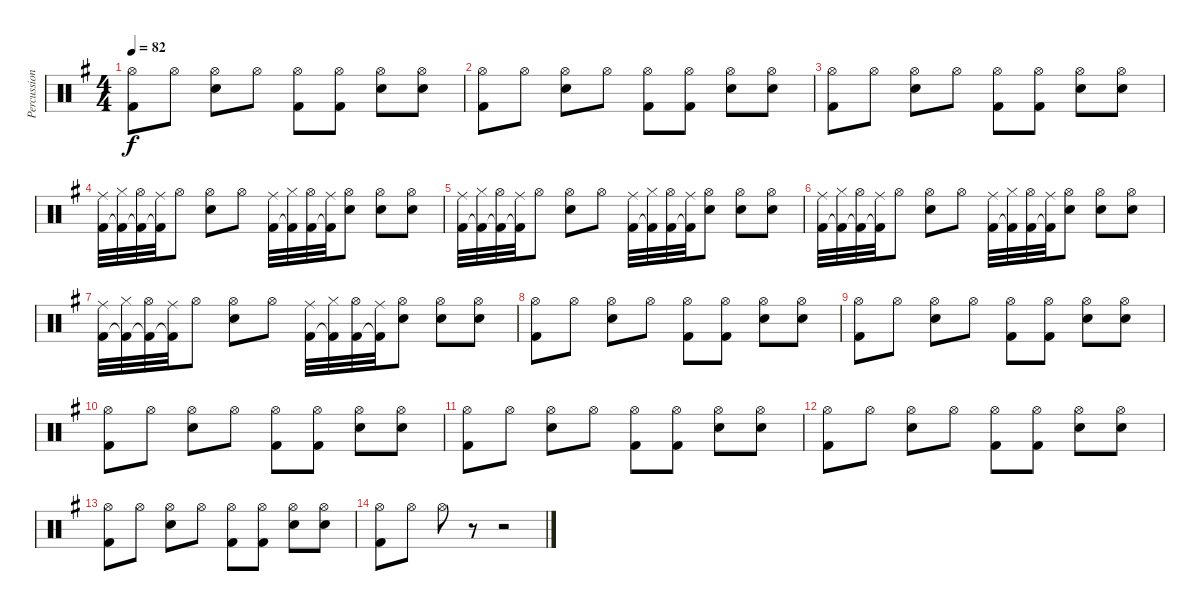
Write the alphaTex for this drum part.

\track ("Percussions" "Percussion") {instrument percussion}
\staff {score}
\articulation defaults
\ts (4 4)
\tempo 82
\clef neutral
\ks g
("Hi-Hat (open)" "Kick (hit) 2").8{dy f} "Hi-Hat (open)".8 ("Hi-Hat (open)" "Snare (hit) 2").8 "Hi-Hat (open)".8 ("Hi-Hat (open)" "Kick (hit) 2").8 ("Hi-Hat (open)" "Kick (hit) 2").8 ("Hi-Hat (open)" "Snare (hit) 2").8 ("Hi-Hat (open)" "Snare (hit) 2").8 |
("Hi-Hat (open)" "Kick (hit) 2").8 "Hi-Hat (open)".8 ("Hi-Hat (open)" "Snare (hit) 2").8 "Hi-Hat (open)".8 ("Hi-Hat (open)" "Kick (hit) 2").8 ("Hi-Hat (open)" "Kick (hit) 2").8 ("Hi-Hat (open)" "Snare (hit) 2").8 ("Hi-Hat (open)" "Snare (hit) 2").8 |
("Hi-Hat (open)" "Kick (hit) 2").8 "Hi-Hat (open)".8 ("Hi-Hat (open)" "Snare (hit) 2").8 "Hi-Hat (open)".8 ("Hi-Hat (open)" "Kick (hit) 2").8 ("Hi-Hat (open)" "Kick (hit) 2").8 ("Hi-Hat (open)" "Snare (hit) 2").8 ("Hi-Hat (open)" "Snare (hit) 2").8 |
("Ride (middle)" "Kick (hit) 2").32 ("Hi-Hat (closed)" "Kick (hit) 2"{t}).32 ("Hi-Hat (open)" "Kick (hit) 2"{t}).32 ("Ride (middle)" "Kick (hit) 2"{t}).32 "Hi-Hat (open)".8 ("Hi-Hat (open)" "Snare (hit) 2").8 "Hi-Hat (open)".8 ("Ride (middle)" "Kick (hit) 2").32 ("Hi-Hat (closed)" "Kick (hit) 2"{t}).32 ("Hi-Hat (open)" "Kick (hit) 2").32 ("Ride (middle)" "Kick (hit) 2"{t}).32 ("Hi-Hat (open)" "Snare (hit) 2").8 ("Hi-Hat (open)" "Snare (hit) 2").8 ("Hi-Hat (open)" "Snare (hit) 2").8 |
("Ride (middle)" "Kick (hit) 2").32 ("Hi-Hat (closed)" "Kick (hit) 2"{t}).32 ("Hi-Hat (open)" "Kick (hit) 2"{t}).32 ("Ride (middle)" "Kick (hit) 2"{t}).32 "Hi-Hat (open)".8 ("Hi-Hat (open)" "Snare (hit) 2").8 "Hi-Hat (open)".8 ("Ride (middle)" "Kick (hit) 2").32 ("Hi-Hat (closed)" "Kick (hit) 2"{t}).32 ("Hi-Hat (open)" "Kick (hit) 2").32 ("Ride (middle)" "Kick (hit) 2"{t}).32 ("Hi-Hat (open)" "Snare (hit) 2").8 ("Hi-Hat (open)" "Snare (hit) 2").8 ("Hi-Hat (open)" "Snare (hit) 2").8 |
("Ride (middle)" "Kick (hit) 2").32 ("Hi-Hat (closed)" "Kick (hit) 2"{t}).32 ("Hi-Hat (open)" "Kick (hit) 2"{t}).32 ("Ride (middle)" "Kick (hit) 2"{t}).32 "Hi-Hat (open)".8 ("Hi-Hat (open)" "Snare (hit) 2").8 "Hi-Hat (open)".8 ("Ride (middle)" "Kick (hit) 2").32 ("Hi-Hat (closed)" "Kick (hit) 2"{t}).32 ("Hi-Hat (open)" "Kick (hit) 2").32 ("Ride (middle)" "Kick (hit) 2"{t}).32 ("Hi-Hat (open)" "Snare (hit) 2").8 ("Hi-Hat (open)" "Snare (hit) 2").8 ("Hi-Hat (open)" "Snare (hit) 2").8 |
("Ride (middle)" "Kick (hit) 2").32 ("Hi-Hat (closed)" "Kick (hit) 2"{t}).32 ("Hi-Hat (open)" "Kick (hit) 2"{t}).32 ("Ride (middle)" "Kick (hit) 2"{t}).32 "Hi-Hat (open)".8 ("Hi-Hat (open)" "Snare (hit) 2").8 "Hi-Hat (open)".8 ("Ride (middle)" "Kick (hit) 2").32 ("Hi-Hat (closed)" "Kick (hit) 2"{t}).32 ("Hi-Hat (open)" "Kick (hit) 2").32 ("Ride (middle)" "Kick (hit) 2"{t}).32 ("Hi-Hat (open)" "Snare (hit) 2").8 ("Hi-Hat (open)" "Snare (hit) 2").8 ("Hi-Hat (open)" "Snare (hit) 2").8 |
("Hi-Hat (open)" "Kick (hit) 2").8 "Hi-Hat (open)".8 ("Hi-Hat (open)" "Snare (hit) 2").8 "Hi-Hat (open)".8 ("Hi-Hat (open)" "Kick (hit) 2").8 ("Hi-Hat (open)" "Kick (hit) 2").8 ("Hi-Hat (open)" "Snare (hit) 2").8 ("Hi-Hat (open)" "Snare (hit) 2").8 |
("Hi-Hat (open)" "Kick (hit) 2").8 "Hi-Hat (open)".8 ("Hi-Hat (open)" "Snare (hit) 2").8 "Hi-Hat (open)".8 ("Hi-Hat (open)" "Kick (hit) 2").8 ("Hi-Hat (open)" "Kick (hit) 2").8 ("Hi-Hat (open)" "Snare (hit) 2").8 ("Hi-Hat (open)" "Snare (hit) 2").8 |
("Hi-Hat (open)" "Kick (hit) 2").8 "Hi-Hat (open)".8 ("Hi-Hat (open)" "Snare (hit) 2").8 "Hi-Hat (open)".8 ("Hi-Hat (open)" "Kick (hit) 2").8 ("Hi-Hat (open)" "Kick (hit) 2").8 ("Hi-Hat (open)" "Snare (hit) 2").8 ("Hi-Hat (open)" "Snare (hit) 2").8 |
("Hi-Hat (open)" "Kick (hit) 2").8 "Hi-Hat (open)".8 ("Hi-Hat (open)" "Snare (hit) 2").8 "Hi-Hat (open)".8 ("Hi-Hat (open)" "Kick (hit) 2").8 ("Hi-Hat (open)" "Kick (hit) 2").8 ("Hi-Hat (open)" "Snare (hit) 2").8 ("Hi-Hat (open)" "Snare (hit) 2").8 |
("Hi-Hat (open)" "Kick (hit) 2").8 "Hi-Hat (open)".8 ("Hi-Hat (open)" "Snare (hit) 2").8 "Hi-Hat (open)".8 ("Hi-Hat (open)" "Kick (hit) 2").8 ("Hi-Hat (open)" "Kick (hit) 2").8 ("Hi-Hat (open)" "Snare (hit) 2").8 ("Hi-Hat (open)" "Snare (hit) 2").8 |
("Hi-Hat (open)" "Kick (hit) 2").8 "Hi-Hat (open)".8 ("Hi-Hat (open)" "Snare (hit) 2").8 "Hi-Hat (open)".8 ("Hi-Hat (open)" "Kick (hit) 2").8 ("Hi-Hat (open)" "Kick (hit) 2").8 ("Hi-Hat (open)" "Snare (hit) 2").8 ("Hi-Hat (open)" "Snare (hit) 2").8 |
("Hi-Hat (open)" "Kick (hit) 2").8 "Hi-Hat (open)".8 "Hi-Hat (open)".8 r.8 r.2
